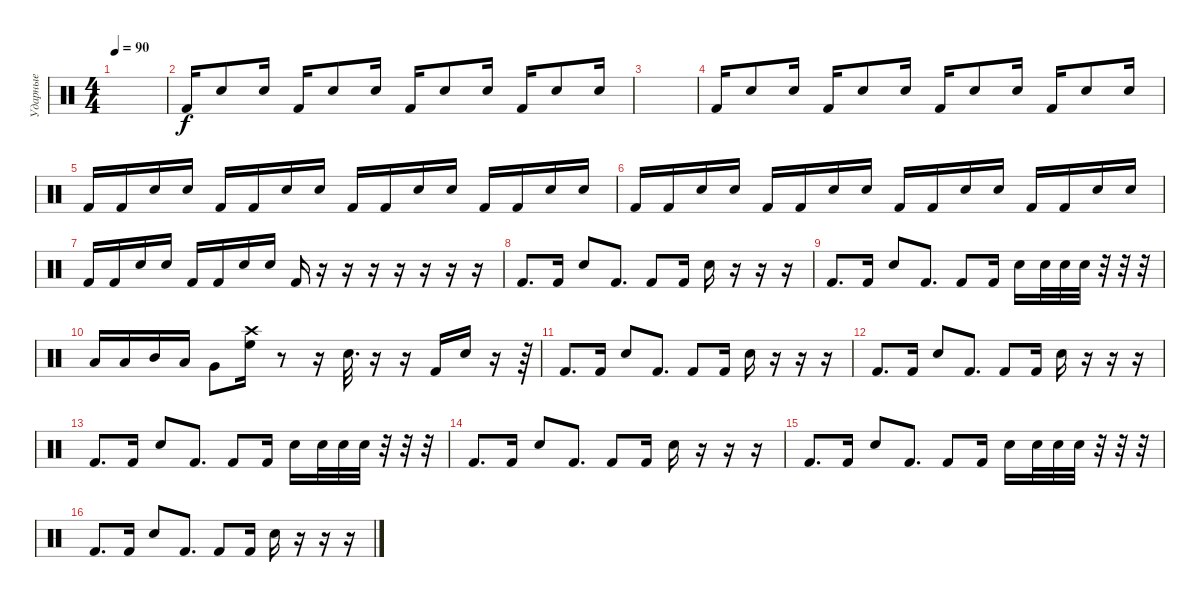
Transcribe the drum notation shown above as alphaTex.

\track ("Ударные" "Ударные") {instrument percussion}
\staff {score}
\articulation defaults
\ts (4 4)
\tempo 90
\clef neutral
\ks c
|
"Kick (hit) 2".16 "Electric Snare (hit)".8 "Electric Snare (hit)".16 "Kick (hit) 2".16 "Electric Snare (hit)".8 "Electric Snare (hit)".16 "Kick (hit) 2".16 "Electric Snare (hit)".8 "Electric Snare (hit)".16 "Kick (hit) 2".16 "Electric Snare (hit)".8 "Electric Snare (hit)".16 |
|
"Kick (hit) 2".16 "Electric Snare (hit)".8 "Electric Snare (hit)".16 "Kick (hit) 2".16 "Electric Snare (hit)".8 "Electric Snare (hit)".16 "Kick (hit) 2".16 "Electric Snare (hit)".8 "Electric Snare (hit)".16 "Kick (hit) 2".16 "Electric Snare (hit)".8 "Electric Snare (hit)".16 |
"Kick (hit) 2".16 "Kick (hit) 2".16 "Electric Snare (hit)".16 "Electric Snare (hit)".16 "Kick (hit) 2".16 "Kick (hit) 2".16 "Electric Snare (hit)".16 "Electric Snare (hit)".16 "Kick (hit) 2".16 "Kick (hit) 2".16 "Electric Snare (hit)".16 "Electric Snare (hit)".16 "Kick (hit) 2".16 "Kick (hit) 2".16 "Electric Snare (hit)".16 "Electric Snare (hit)".16 |
"Kick (hit) 2".16 "Kick (hit) 2".16 "Electric Snare (hit)".16 "Electric Snare (hit)".16 "Kick (hit) 2".16 "Kick (hit) 2".16 "Electric Snare (hit)".16 "Electric Snare (hit)".16 "Kick (hit) 2".16 "Kick (hit) 2".16 "Electric Snare (hit)".16 "Electric Snare (hit)".16 "Kick (hit) 2".16 "Kick (hit) 2".16 "Electric Snare (hit)".16 "Electric Snare (hit)".16 |
"Kick (hit) 2".16 "Kick (hit) 2".16 "Electric Snare (hit)".16 "Electric Snare (hit)".16 "Kick (hit) 2".16 "Kick (hit) 2".16 "Electric Snare (hit)".16 "Electric Snare (hit)".16 "Kick (hit) 2".16 r.16 r.16 r.16 r.16 r.16 r.16 r.16 |
"Kick (hit) 2".8{d} "Kick (hit) 2".16 "Electric Snare (hit)".8 "Kick (hit) 2".8{d} "Kick (hit) 2".8 "Kick (hit) 2".16 "Electric Snare (hit)".16 r.16 r.16 r.16 |
"Kick (hit) 2".8{d} "Kick (hit) 2".16 "Electric Snare (hit)".8 "Kick (hit) 2".8{d} "Kick (hit) 2".8 "Kick (hit) 2".16 "Electric Snare (hit)".16 "Electric Snare (hit)".32 "Electric Snare (hit)".32 "Electric Snare (hit)".32 r.32 r.32 r.32 |
"Low Floor Tom (hit)".16 "Low Floor Tom (hit)".16 "Mid Tom (hit)".16 "Low Tom (hit)".16 "Very Low Tom (hit)".8 ("Crash high (hit)" "High Floor Tom (hit)").16 r.8 r.16 "Electric Snare (hit)".32{d} r.16 r.16 "Kick (hit) 2".16 "Electric Snare (hit)".16 r.16 r.64 |
"Kick (hit) 2".8{d} "Kick (hit) 2".16 "Electric Snare (hit)".8 "Kick (hit) 2".8{d} "Kick (hit) 2".8 "Kick (hit) 2".16 "Electric Snare (hit)".16 r.16 r.16 r.16 |
"Kick (hit) 2".8{d} "Kick (hit) 2".16 "Electric Snare (hit)".8 "Kick (hit) 2".8{d} "Kick (hit) 2".8 "Kick (hit) 2".16 "Electric Snare (hit)".16 r.16 r.16 r.16 |
"Kick (hit) 2".8{d} "Kick (hit) 2".16 "Electric Snare (hit)".8 "Kick (hit) 2".8{d} "Kick (hit) 2".8 "Kick (hit) 2".16 "Electric Snare (hit)".16 "Electric Snare (hit)".32 "Electric Snare (hit)".32 "Electric Snare (hit)".32 r.32 r.32 r.32 |
"Kick (hit) 2".8{d} "Kick (hit) 2".16 "Electric Snare (hit)".8 "Kick (hit) 2".8{d} "Kick (hit) 2".8 "Kick (hit) 2".16 "Electric Snare (hit)".16 r.16 r.16 r.16 |
"Kick (hit) 2".8{d} "Kick (hit) 2".16 "Electric Snare (hit)".8 "Kick (hit) 2".8{d} "Kick (hit) 2".8 "Kick (hit) 2".16 "Electric Snare (hit)".16 "Electric Snare (hit)".32 "Electric Snare (hit)".32 "Electric Snare (hit)".32 r.32 r.32 r.32 |
"Kick (hit) 2".8{d} "Kick (hit) 2".16 "Electric Snare (hit)".8 "Kick (hit) 2".8{d} "Kick (hit) 2".8 "Kick (hit) 2".16 "Electric Snare (hit)".16 r.16 r.16 r.16
